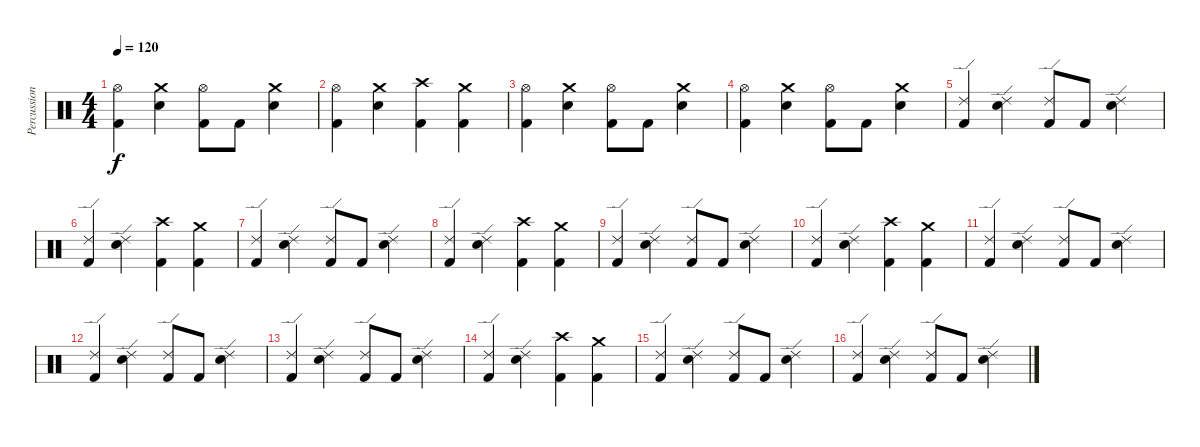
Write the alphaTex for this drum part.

\track ("Percussion" "Percussion") {instrument percussion}
\staff {score}
\articulation defaults
\ts (4 4)
\tempo 120
\clef neutral
\ks c
("Hi-Hat (open)" "Kick (hit) 2").4{dy f} ("Crash medium (hit)" "Snare (hit) 2").4 ("Hi-Hat (open)" "Kick (hit) 2").8 "Kick (hit) 2".8 ("Crash medium (hit)" "Snare (hit) 2").4 |
("Hi-Hat (open)" "Kick (hit) 2").4 ("Crash medium (hit)" "Snare (hit) 2").4 ("Crash high (hit)" "Kick (hit) 2").4 ("Crash medium (hit)" "Kick (hit) 2").4 |
("Hi-Hat (open)" "Kick (hit) 2").4 ("Crash medium (hit)" "Snare (hit) 2").4 ("Hi-Hat (open)" "Kick (hit) 2").8 "Kick (hit) 2".8 ("Crash medium (hit)" "Snare (hit) 2").4 |
("Hi-Hat (open)" "Kick (hit) 2").4 ("Crash medium (hit)" "Snare (hit) 2").4 ("Hi-Hat (open)" "Kick (hit) 2").8 "Kick (hit) 2".8 ("Crash medium (hit)" "Snare (hit) 2").4 |
("Ride (edge) 2" "Kick (hit) 2").4 ("Ride (edge) 2" "Snare (hit) 2").4 ("Ride (edge) 2" "Kick (hit) 2").8 "Kick (hit) 2".8 ("Ride (edge) 2" "Snare (hit) 2").4 |
("Ride (edge) 2" "Kick (hit) 2").4 ("Ride (edge) 2" "Snare (hit) 2").4 ("Crash high (hit)" "Kick (hit) 2").4 ("Crash medium (hit)" "Kick (hit) 2").4 |
("Ride (edge) 2" "Kick (hit) 2").4 ("Ride (edge) 2" "Snare (hit) 2").4 ("Ride (edge) 2" "Kick (hit) 2").8 "Kick (hit) 2".8 ("Ride (edge) 2" "Snare (hit) 2").4 |
("Ride (edge) 2" "Kick (hit) 2").4 ("Ride (edge) 2" "Snare (hit) 2").4 ("Crash high (hit)" "Kick (hit) 2").4 ("Crash medium (hit)" "Kick (hit) 2").4 |
("Ride (edge) 2" "Kick (hit) 2").4 ("Ride (edge) 2" "Snare (hit) 2").4 ("Ride (edge) 2" "Kick (hit) 2").8 "Kick (hit) 2".8 ("Ride (edge) 2" "Snare (hit) 2").4 |
("Ride (edge) 2" "Kick (hit) 2").4 ("Ride (edge) 2" "Snare (hit) 2").4 ("Crash high (hit)" "Kick (hit) 2").4 ("Crash medium (hit)" "Kick (hit) 2").4 |
("Ride (edge) 2" "Kick (hit) 2").4 ("Ride (edge) 2" "Snare (hit) 2").4 ("Ride (edge) 2" "Kick (hit) 2").8 "Kick (hit) 2".8 ("Ride (edge) 2" "Snare (hit) 2").4 |
("Ride (edge) 2" "Kick (hit) 2").4 ("Ride (edge) 2" "Snare (hit) 2").4 ("Ride (edge) 2" "Kick (hit) 2").8 "Kick (hit) 2".8 ("Ride (edge) 2" "Snare (hit) 2").4 |
("Ride (edge) 2" "Kick (hit) 2").4 ("Ride (edge) 2" "Snare (hit) 2").4 ("Ride (edge) 2" "Kick (hit) 2").8 "Kick (hit) 2".8 ("Ride (edge) 2" "Snare (hit) 2").4 |
("Ride (edge) 2" "Kick (hit) 2").4 ("Ride (edge) 2" "Snare (hit) 2").4 ("Crash high (hit)" "Kick (hit) 2").4 ("Crash medium (hit)" "Kick (hit) 2").4 |
("Ride (edge) 2" "Kick (hit) 2").4 ("Ride (edge) 2" "Snare (hit) 2").4 ("Ride (edge) 2" "Kick (hit) 2").8 "Kick (hit) 2".8 ("Ride (edge) 2" "Snare (hit) 2").4 |
("Ride (edge) 2" "Kick (hit) 2").4 ("Ride (edge) 2" "Snare (hit) 2").4 ("Ride (edge) 2" "Kick (hit) 2").8 "Kick (hit) 2".8 ("Ride (edge) 2" "Snare (hit) 2").4
